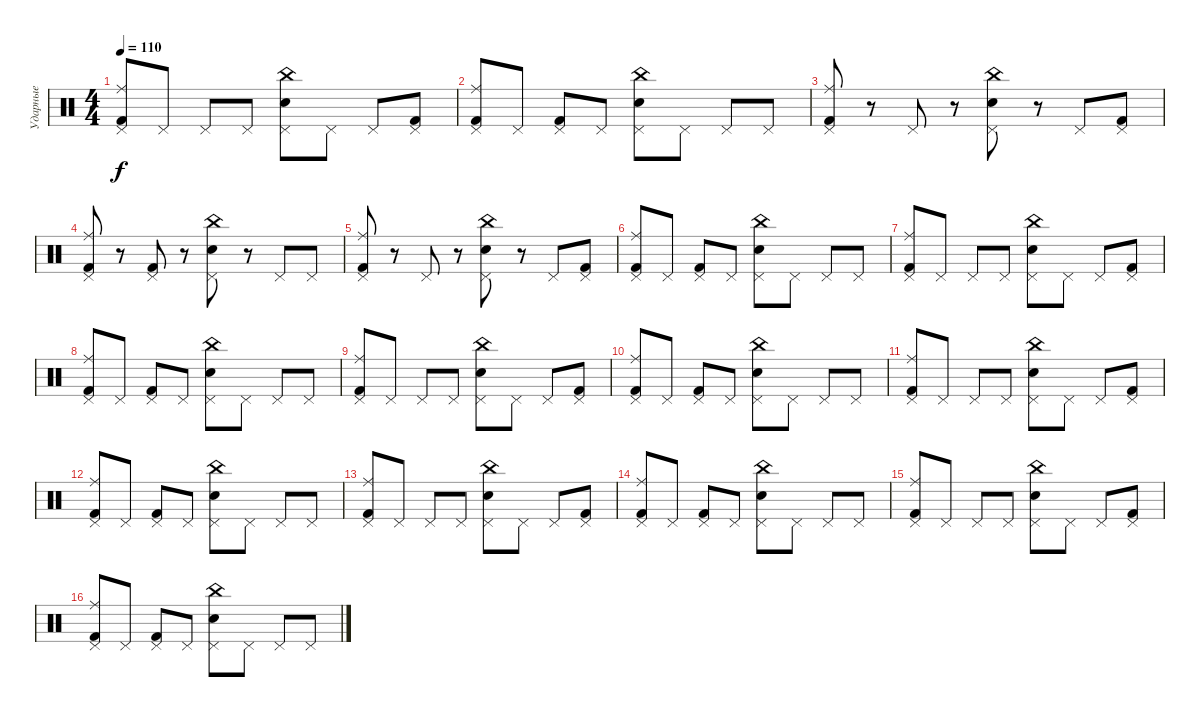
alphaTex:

\track ("Ударные" "Ударные") {instrument percussion}
\staff {score}
\articulation defaults
\ts (4 4)
\tempo 110
\clef neutral
\ks c
("Pedal Hi-Hat (hit)" "Ride (middle)" "Kick (hit) 2").8{dy f} "Pedal Hi-Hat (hit)".8 "Pedal Hi-Hat (hit)".8 "Pedal Hi-Hat (hit)".8 ("Pedal Hi-Hat (hit)" "Electric Snare (hit)" "China (hit)").8 "Pedal Hi-Hat (hit)".8 "Pedal Hi-Hat (hit)".8 ("Pedal Hi-Hat (hit)" "Kick (hit) 2").8 |
("Pedal Hi-Hat (hit)" "Ride (middle)" "Kick (hit) 2").8 "Pedal Hi-Hat (hit)".8 ("Pedal Hi-Hat (hit)" "Kick (hit) 2").8 "Pedal Hi-Hat (hit)".8 ("Pedal Hi-Hat (hit)" "Electric Snare (hit)" "China (hit)").8 "Pedal Hi-Hat (hit)".8 "Pedal Hi-Hat (hit)".8 "Pedal Hi-Hat (hit)".8 |
("Pedal Hi-Hat (hit)" "Ride (middle)" "Kick (hit) 2").8 r.8 "Pedal Hi-Hat (hit)".8 r.8 ("Pedal Hi-Hat (hit)" "Electric Snare (hit)" "China (hit)").8 r.8 "Pedal Hi-Hat (hit)".8 ("Pedal Hi-Hat (hit)" "Kick (hit) 2").8 |
("Pedal Hi-Hat (hit)" "Ride (middle)" "Kick (hit) 2").8 r.8 ("Pedal Hi-Hat (hit)" "Kick (hit) 2").8 r.8 ("Pedal Hi-Hat (hit)" "Electric Snare (hit)" "China (hit)").8 r.8 "Pedal Hi-Hat (hit)".8 "Pedal Hi-Hat (hit)".8 |
("Pedal Hi-Hat (hit)" "Ride (middle)" "Kick (hit) 2").8 r.8 "Pedal Hi-Hat (hit)".8 r.8 ("Pedal Hi-Hat (hit)" "Electric Snare (hit)" "China (hit)").8 r.8 "Pedal Hi-Hat (hit)".8 ("Pedal Hi-Hat (hit)" "Kick (hit) 2").8 |
("Pedal Hi-Hat (hit)" "Ride (middle)" "Kick (hit) 2").8 "Pedal Hi-Hat (hit)".8 ("Pedal Hi-Hat (hit)" "Kick (hit) 2").8 "Pedal Hi-Hat (hit)".8 ("Pedal Hi-Hat (hit)" "Electric Snare (hit)" "China (hit)").8 "Pedal Hi-Hat (hit)".8 "Pedal Hi-Hat (hit)".8 "Pedal Hi-Hat (hit)".8 |
("Pedal Hi-Hat (hit)" "Ride (middle)" "Kick (hit) 2").8 "Pedal Hi-Hat (hit)".8 "Pedal Hi-Hat (hit)".8 "Pedal Hi-Hat (hit)".8 ("Pedal Hi-Hat (hit)" "Electric Snare (hit)" "China (hit)").8 "Pedal Hi-Hat (hit)".8 "Pedal Hi-Hat (hit)".8 ("Pedal Hi-Hat (hit)" "Kick (hit) 2").8 |
("Pedal Hi-Hat (hit)" "Ride (middle)" "Kick (hit) 2").8 "Pedal Hi-Hat (hit)".8 ("Pedal Hi-Hat (hit)" "Kick (hit) 2").8 "Pedal Hi-Hat (hit)".8 ("Pedal Hi-Hat (hit)" "Electric Snare (hit)" "China (hit)").8 "Pedal Hi-Hat (hit)".8 "Pedal Hi-Hat (hit)".8 "Pedal Hi-Hat (hit)".8 |
("Pedal Hi-Hat (hit)" "Ride (middle)" "Kick (hit) 2").8 "Pedal Hi-Hat (hit)".8 "Pedal Hi-Hat (hit)".8 "Pedal Hi-Hat (hit)".8 ("Pedal Hi-Hat (hit)" "Electric Snare (hit)" "China (hit)").8 "Pedal Hi-Hat (hit)".8 "Pedal Hi-Hat (hit)".8 ("Pedal Hi-Hat (hit)" "Kick (hit) 2").8 |
("Pedal Hi-Hat (hit)" "Ride (middle)" "Kick (hit) 2").8 "Pedal Hi-Hat (hit)".8 ("Pedal Hi-Hat (hit)" "Kick (hit) 2").8 "Pedal Hi-Hat (hit)".8 ("Pedal Hi-Hat (hit)" "Electric Snare (hit)" "China (hit)").8 "Pedal Hi-Hat (hit)".8 "Pedal Hi-Hat (hit)".8 "Pedal Hi-Hat (hit)".8 |
("Pedal Hi-Hat (hit)" "Ride (middle)" "Kick (hit) 2").8 "Pedal Hi-Hat (hit)".8 "Pedal Hi-Hat (hit)".8 "Pedal Hi-Hat (hit)".8 ("Pedal Hi-Hat (hit)" "Electric Snare (hit)" "China (hit)").8 "Pedal Hi-Hat (hit)".8 "Pedal Hi-Hat (hit)".8 ("Pedal Hi-Hat (hit)" "Kick (hit) 2").8 |
("Pedal Hi-Hat (hit)" "Ride (middle)" "Kick (hit) 2").8 "Pedal Hi-Hat (hit)".8 ("Pedal Hi-Hat (hit)" "Kick (hit) 2").8 "Pedal Hi-Hat (hit)".8 ("Pedal Hi-Hat (hit)" "Electric Snare (hit)" "China (hit)").8 "Pedal Hi-Hat (hit)".8 "Pedal Hi-Hat (hit)".8 "Pedal Hi-Hat (hit)".8 |
("Pedal Hi-Hat (hit)" "Ride (middle)" "Kick (hit) 2").8 "Pedal Hi-Hat (hit)".8 "Pedal Hi-Hat (hit)".8 "Pedal Hi-Hat (hit)".8 ("Pedal Hi-Hat (hit)" "Electric Snare (hit)" "China (hit)").8 "Pedal Hi-Hat (hit)".8 "Pedal Hi-Hat (hit)".8 ("Pedal Hi-Hat (hit)" "Kick (hit) 2").8 |
("Pedal Hi-Hat (hit)" "Ride (middle)" "Kick (hit) 2").8 "Pedal Hi-Hat (hit)".8 ("Pedal Hi-Hat (hit)" "Kick (hit) 2").8 "Pedal Hi-Hat (hit)".8 ("Pedal Hi-Hat (hit)" "Electric Snare (hit)" "China (hit)").8 "Pedal Hi-Hat (hit)".8 "Pedal Hi-Hat (hit)".8 "Pedal Hi-Hat (hit)".8 |
("Pedal Hi-Hat (hit)" "Ride (middle)" "Kick (hit) 2").8 "Pedal Hi-Hat (hit)".8 "Pedal Hi-Hat (hit)".8 "Pedal Hi-Hat (hit)".8 ("Pedal Hi-Hat (hit)" "Electric Snare (hit)" "China (hit)").8 "Pedal Hi-Hat (hit)".8 "Pedal Hi-Hat (hit)".8 ("Pedal Hi-Hat (hit)" "Kick (hit) 2").8 |
("Pedal Hi-Hat (hit)" "Ride (middle)" "Kick (hit) 2").8 "Pedal Hi-Hat (hit)".8 ("Pedal Hi-Hat (hit)" "Kick (hit) 2").8 "Pedal Hi-Hat (hit)".8 ("Pedal Hi-Hat (hit)" "Electric Snare (hit)" "China (hit)").8 "Pedal Hi-Hat (hit)".8 "Pedal Hi-Hat (hit)".8 "Pedal Hi-Hat (hit)".8
